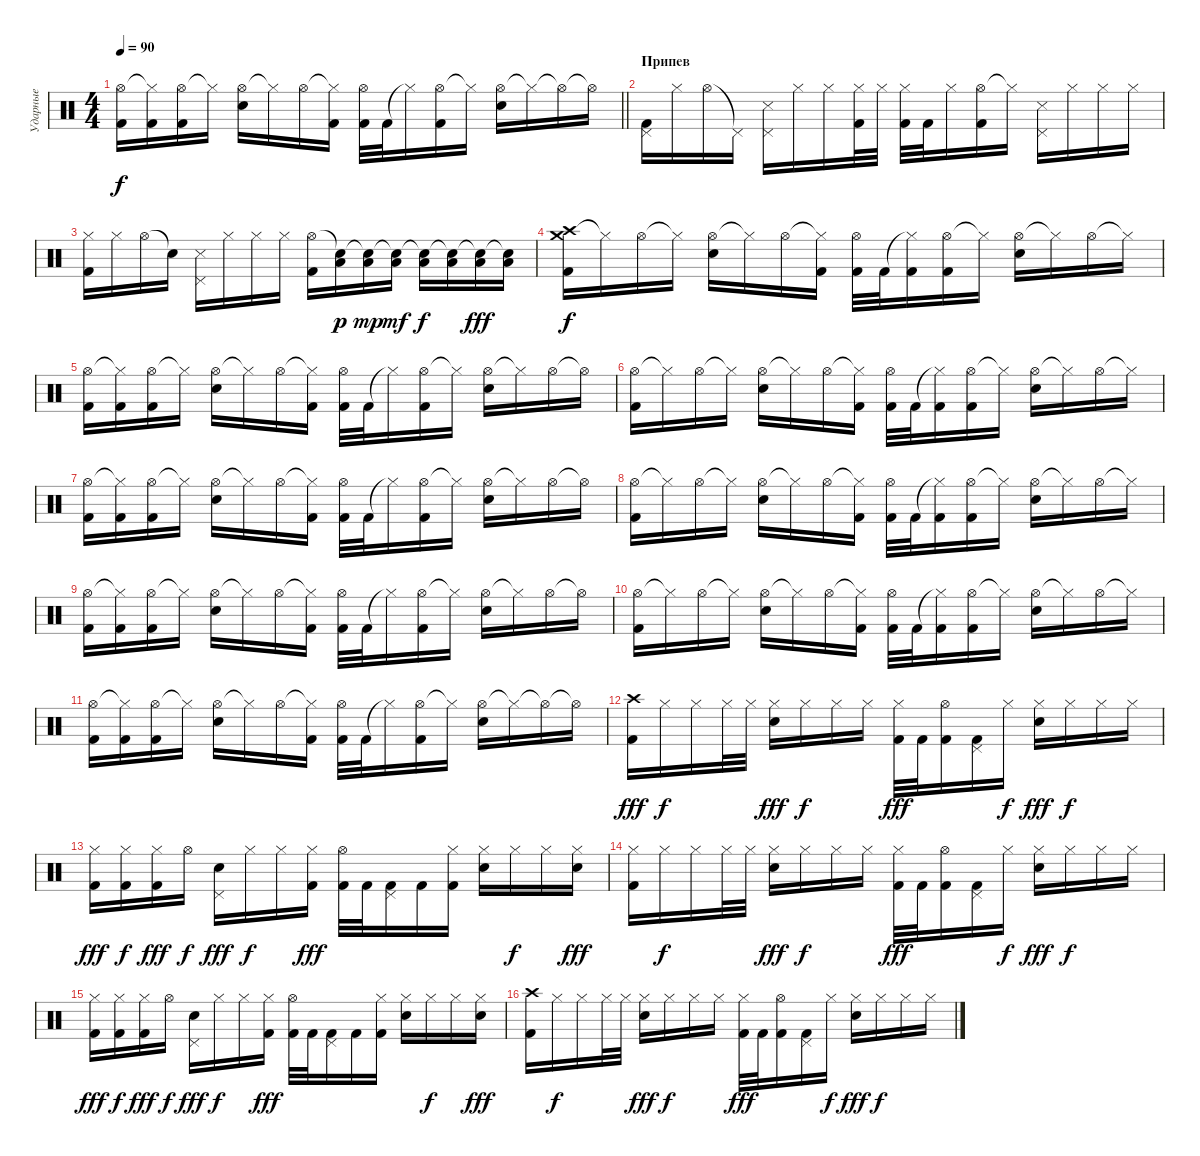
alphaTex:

\track ("Ударные" "Ударные") {instrument percussion}
\staff {score}
\articulation defaults
\ts (4 4)
\tempo 90
\clef neutral
\barLineRight lightlight
\ks c
("Hi-Hat (open)" "Kick (hit) 2").16{dy f} ("Hi-Hat (closed)"{t} "Kick (hit) 2").16 ("Hi-Hat (open)" "Kick (hit) 2").16 "Hi-Hat (closed)"{t}.16 ("Hi-Hat (open)" "Electric Snare (hit)").16 "Hi-Hat (closed)"{t}.16 "Hi-Hat (open)".16 ("Hi-Hat (closed)"{t} "Kick (hit) 2").16 ("Hi-Hat (open)" "Kick (hit) 2").32 "Kick (hit) 2".32 "Hi-Hat (closed)"{t}.16 ("Hi-Hat (open)" "Kick (hit) 2").16 "Hi-Hat (closed)"{t}.16 ("Hi-Hat (open)" "Electric Snare (hit)").16 "Hi-Hat (closed)"{t}.16 "Hi-Hat (open)"{t}.16 "Hi-Hat (open)"{t}.16 |
\section ("" "Припев")
("Pedal Hi-Hat (hit)" "Kick (hit) 2").16 "Hi-Hat (closed)".16 "Hi-Hat (open)".16 "Pedal Hi-Hat (hit)"{t}.16 ("Pedal Hi-Hat (hit)" "Snare (side stick) 3").16 "Hi-Hat (closed)".16 "Hi-Hat (closed)".16 ("Hi-Hat (closed)" "Kick (hit) 2").32 "Hi-Hat (closed)".32 ("Hi-Hat (closed)" "Kick (hit) 2").32 "Kick (hit) 2".32 "Hi-Hat (closed)".16 ("Hi-Hat (open)" "Kick (hit) 2").16 "Hi-Hat (closed)"{t}.16 ("Pedal Hi-Hat (hit)" "Snare (side stick) 3").16 "Hi-Hat (closed)".16 "Hi-Hat (closed)".16 "Hi-Hat (closed)".16 |
("Hi-Hat (closed)" "Kick (hit) 2").16 "Hi-Hat (closed)".16 "Hi-Hat (open)".16 "Snare (hit)"{t}.16 ("Pedal Hi-Hat (hit)" "Snare (side stick) 3").16 "Hi-Hat (closed)".16 "Hi-Hat (closed)".16 "Hi-Hat (closed)".16 ("Hi-Hat (open)" "Kick (hit) 2").16 ("Snare (hit)"{t} "Low Tom (hit)").16{dy p} ("Snare (hit)"{t} "Low Tom (hit)").16{dy mp} ("Snare (hit)"{t} "Low Tom (hit)").16{dy mf} ("Snare (hit)"{t} "Low Tom (hit)").16{dy f} ("Snare (hit)"{t} "Low Tom (hit)").16 ("Snare (hit)"{t} "Low Tom (hit)").16{dy fff} ("Snare (hit)"{t} "Low Tom (hit)").16 |
("Crash high (hit)" "Crash medium (hit)" "Kick (hit) 2").16{dy f} "Hi-Hat (closed)"{t}.16 "Hi-Hat (open)".16 "Hi-Hat (closed)"{t}.16 ("Hi-Hat (open)" "Electric Snare (hit)").16 "Hi-Hat (closed)"{t}.16 "Hi-Hat (open)".16 ("Hi-Hat (closed)"{t} "Kick (hit) 2").16 ("Hi-Hat (open)" "Kick (hit) 2").32 "Kick (hit) 2".32 ("Hi-Hat (closed)"{t} "Kick (hit) 2").16 ("Hi-Hat (open)" "Kick (hit) 2").16 "Hi-Hat (closed)"{t}.16 ("Hi-Hat (open)" "Electric Snare (hit)").16 "Hi-Hat (closed)"{t}.16 "Hi-Hat (open)".16 "Hi-Hat (closed)"{t}.16 |
("Hi-Hat (open)" "Kick (hit) 2").16 ("Hi-Hat (closed)"{t} "Kick (hit) 2").16 ("Hi-Hat (open)" "Kick (hit) 2").16 "Hi-Hat (closed)"{t}.16 ("Hi-Hat (open)" "Electric Snare (hit)").16 "Hi-Hat (closed)"{t}.16 "Hi-Hat (open)".16 ("Hi-Hat (closed)"{t} "Kick (hit) 2").16 ("Hi-Hat (open)" "Kick (hit) 2").32 "Kick (hit) 2".32 "Hi-Hat (closed)"{t}.16 ("Hi-Hat (open)" "Kick (hit) 2").16 "Hi-Hat (closed)"{t}.16 ("Hi-Hat (open)" "Electric Snare (hit)").16 "Hi-Hat (closed)"{t}.16 "Hi-Hat (open)".16 "Hi-Hat (open)"{t}.16 |
("Hi-Hat (open)" "Kick (hit) 2").16 "Hi-Hat (closed)"{t}.16 "Hi-Hat (open)".16 "Hi-Hat (closed)"{t}.16 ("Hi-Hat (open)" "Electric Snare (hit)").16 "Hi-Hat (closed)"{t}.16 "Hi-Hat (open)".16 ("Hi-Hat (closed)"{t} "Kick (hit) 2").16 ("Hi-Hat (open)" "Kick (hit) 2").32 "Kick (hit) 2".32 ("Hi-Hat (closed)"{t} "Kick (hit) 2").16 ("Hi-Hat (open)" "Kick (hit) 2").16 "Hi-Hat (closed)"{t}.16 ("Hi-Hat (open)" "Electric Snare (hit)").16 "Hi-Hat (closed)"{t}.16 "Hi-Hat (open)".16 "Hi-Hat (closed)"{t}.16 |
("Hi-Hat (open)" "Kick (hit) 2").16 ("Hi-Hat (closed)"{t} "Kick (hit) 2").16 ("Hi-Hat (open)" "Kick (hit) 2").16 "Hi-Hat (closed)"{t}.16 ("Hi-Hat (open)" "Electric Snare (hit)").16 "Hi-Hat (closed)"{t}.16 "Hi-Hat (open)".16 ("Hi-Hat (closed)"{t} "Kick (hit) 2").16 ("Hi-Hat (open)" "Kick (hit) 2").32 "Kick (hit) 2".32 "Hi-Hat (closed)"{t}.16 ("Hi-Hat (open)" "Kick (hit) 2").16 "Hi-Hat (closed)"{t}.16 ("Hi-Hat (open)" "Electric Snare (hit)").16 "Hi-Hat (closed)"{t}.16 "Hi-Hat (open)".16 "Hi-Hat (open)"{t}.16 |
("Hi-Hat (open)" "Kick (hit) 2").16 "Hi-Hat (closed)"{t}.16 "Hi-Hat (open)".16 "Hi-Hat (closed)"{t}.16 ("Hi-Hat (open)" "Electric Snare (hit)").16 "Hi-Hat (closed)"{t}.16 "Hi-Hat (open)".16 ("Hi-Hat (closed)"{t} "Kick (hit) 2").16 ("Hi-Hat (open)" "Kick (hit) 2").32 "Kick (hit) 2".32 ("Hi-Hat (closed)"{t} "Kick (hit) 2").16 ("Hi-Hat (open)" "Kick (hit) 2").16 "Hi-Hat (closed)"{t}.16 ("Hi-Hat (open)" "Electric Snare (hit)").16 "Hi-Hat (closed)"{t}.16 "Hi-Hat (open)".16 "Hi-Hat (closed)"{t}.16 |
("Hi-Hat (open)" "Kick (hit) 2").16 ("Hi-Hat (closed)"{t} "Kick (hit) 2").16 ("Hi-Hat (open)" "Kick (hit) 2").16 "Hi-Hat (closed)"{t}.16 ("Hi-Hat (open)" "Electric Snare (hit)").16 "Hi-Hat (closed)"{t}.16 "Hi-Hat (open)".16 ("Hi-Hat (closed)"{t} "Kick (hit) 2").16 ("Hi-Hat (open)" "Kick (hit) 2").32 "Kick (hit) 2".32 "Hi-Hat (closed)"{t}.16 ("Hi-Hat (open)" "Kick (hit) 2").16 "Hi-Hat (closed)"{t}.16 ("Hi-Hat (open)" "Electric Snare (hit)").16 "Hi-Hat (closed)"{t}.16 "Hi-Hat (open)".16 "Hi-Hat (open)"{t}.16 |
("Hi-Hat (open)" "Kick (hit) 2").16 "Hi-Hat (closed)"{t}.16 "Hi-Hat (open)".16 "Hi-Hat (closed)"{t}.16 ("Hi-Hat (open)" "Electric Snare (hit)").16 "Hi-Hat (closed)"{t}.16 "Hi-Hat (open)".16 ("Hi-Hat (closed)"{t} "Kick (hit) 2").16 ("Hi-Hat (open)" "Kick (hit) 2").32 "Kick (hit) 2".32 ("Hi-Hat (closed)"{t} "Kick (hit) 2").16 ("Hi-Hat (open)" "Kick (hit) 2").16 "Hi-Hat (closed)"{t}.16 ("Hi-Hat (open)" "Electric Snare (hit)").16 "Hi-Hat (closed)"{t}.16 "Hi-Hat (open)".16 "Hi-Hat (closed)"{t}.16 |
("Hi-Hat (open)" "Kick (hit) 2").16 ("Hi-Hat (closed)"{t} "Kick (hit) 2").16 ("Hi-Hat (open)" "Kick (hit) 2").16 "Hi-Hat (closed)"{t}.16 ("Hi-Hat (open)" "Electric Snare (hit)").16 "Hi-Hat (closed)"{t}.16 "Hi-Hat (open)".16 ("Hi-Hat (closed)"{t} "Kick (hit) 2").16 ("Hi-Hat (open)" "Kick (hit) 2").32 "Kick (hit) 2".32 "Hi-Hat (closed)"{t}.16 ("Hi-Hat (open)" "Kick (hit) 2").16 "Hi-Hat (closed)"{t}.16 ("Hi-Hat (open)" "Electric Snare (hit)").16 "Hi-Hat (closed)"{t}.16 "Hi-Hat (open)"{t}.16 "Hi-Hat (open)"{t}.16 |
("Crash high (hit)" "Kick (hit) 2").16{dy fff} "Hi-Hat (closed)".16{dy f} "Hi-Hat (closed)".16 "Hi-Hat (closed)".32 "Hi-Hat (closed)".32 ("Hi-Hat (closed)" "Electric Snare (hit)").16{dy fff} "Hi-Hat (closed)".16{dy f} "Hi-Hat (closed)".16 "Hi-Hat (closed)".16 ("Hi-Hat (closed)" "Kick (hit) 2").32{dy fff} "Kick (hit) 2".32 ("Hi-Hat (open)" "Kick (hit) 2").16 ("Pedal Hi-Hat (hit)" "Kick (hit) 2").16 "Hi-Hat (closed)".16{dy f} ("Hi-Hat (closed)" "Electric Snare (hit)").16{dy fff} "Hi-Hat (closed)".16{dy f} "Hi-Hat (closed)".16 "Hi-Hat (closed)".16 |
("Hi-Hat (closed)" "Kick (hit) 2").16{dy fff} ("Hi-Hat (closed)" "Kick (hit) 2").16{dy f} ("Hi-Hat (closed)" "Kick (hit) 2").16{dy fff} "Hi-Hat (open)".16{dy f} ("Pedal Hi-Hat (hit)" "Electric Snare (hit)").16{dy fff} "Hi-Hat (closed)".16{dy f} "Hi-Hat (closed)".16 ("Hi-Hat (closed)" "Kick (hit) 2").16{dy fff} ("Hi-Hat (open)" "Kick (hit) 2").32 "Kick (hit) 2".32 ("Pedal Hi-Hat (hit)" "Kick (hit) 2").16 "Kick (hit) 2".16 ("Hi-Hat (closed)" "Kick (hit) 2").16 ("Hi-Hat (closed)" "Electric Snare (hit)").16 "Hi-Hat (closed)".16{dy f} "Hi-Hat (closed)".16 ("Hi-Hat (closed)" "Electric Snare (hit)").16{dy fff} |
("Hi-Hat (closed)" "Kick (hit) 2").16 "Hi-Hat (closed)".16{dy f} "Hi-Hat (closed)".16 "Hi-Hat (closed)".32 "Hi-Hat (closed)".32 ("Hi-Hat (closed)" "Electric Snare (hit)").16{dy fff} "Hi-Hat (closed)".16{dy f} "Hi-Hat (closed)".16 "Hi-Hat (closed)".16 ("Hi-Hat (closed)" "Kick (hit) 2").32{dy fff} "Kick (hit) 2".32 ("Hi-Hat (open)" "Kick (hit) 2").16 ("Pedal Hi-Hat (hit)" "Kick (hit) 2").16 "Hi-Hat (closed)".16{dy f} ("Hi-Hat (closed)" "Electric Snare (hit)").16{dy fff} "Hi-Hat (closed)".16{dy f} "Hi-Hat (closed)".16 "Hi-Hat (closed)".16 |
("Hi-Hat (closed)" "Kick (hit) 2").16{dy fff} ("Hi-Hat (closed)" "Kick (hit) 2").16{dy f} ("Hi-Hat (closed)" "Kick (hit) 2").16{dy fff} "Hi-Hat (open)".16{dy f} ("Pedal Hi-Hat (hit)" "Electric Snare (hit)").16{dy fff} "Hi-Hat (closed)".16{dy f} "Hi-Hat (closed)".16 ("Hi-Hat (closed)" "Kick (hit) 2").16{dy fff} ("Hi-Hat (open)" "Kick (hit) 2").32 "Kick (hit) 2".32 ("Pedal Hi-Hat (hit)" "Kick (hit) 2").16 "Kick (hit) 2".16 ("Hi-Hat (closed)" "Kick (hit) 2").16 ("Hi-Hat (closed)" "Electric Snare (hit)").16 "Hi-Hat (closed)".16{dy f} "Hi-Hat (closed)".16 ("Hi-Hat (closed)" "Electric Snare (hit)").16{dy fff} |
("Crash high (hit)" "Kick (hit) 2").16 "Hi-Hat (closed)".16{dy f} "Hi-Hat (closed)".16 "Hi-Hat (closed)".32 "Hi-Hat (closed)".32 ("Hi-Hat (closed)" "Electric Snare (hit)").16{dy fff} "Hi-Hat (closed)".16{dy f} "Hi-Hat (closed)".16 "Hi-Hat (closed)".16 ("Hi-Hat (closed)" "Kick (hit) 2").32{dy fff} "Kick (hit) 2".32 ("Hi-Hat (open)" "Kick (hit) 2").16 ("Pedal Hi-Hat (hit)" "Kick (hit) 2").16 "Hi-Hat (closed)".16{dy f} ("Hi-Hat (closed)" "Electric Snare (hit)").16{dy fff} "Hi-Hat (closed)".16{dy f} "Hi-Hat (closed)".16 "Hi-Hat (closed)".16
